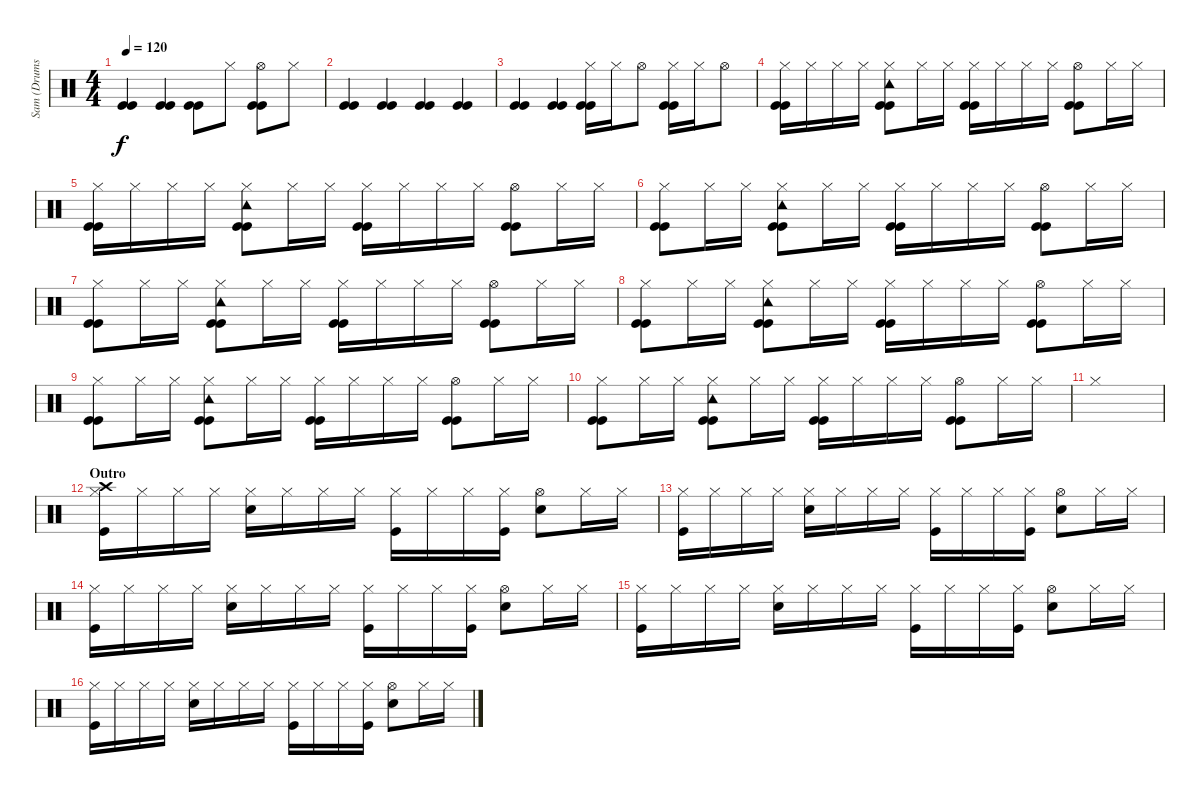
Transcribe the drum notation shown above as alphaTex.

\track ("Sam (Drums)" "Sam (Drums") {instrument percussion}
\staff {score}
\articulation defaults
\ts (4 4)
\tempo 120
\clef neutral
\ks c
("Kick (hit)" "Kick (hit)").4{dy f} ("Kick (hit)" "Kick (hit)").4 ("Kick (hit)" "Kick (hit)").8 "Hi-Hat (closed)".8 ("Hi-Hat (open)" "Kick (hit)" "Kick (hit)").8 "Hi-Hat (closed)".8 |
("Kick (hit)" "Kick (hit)").4 ("Kick (hit)" "Kick (hit)").4 ("Kick (hit)" "Kick (hit)").4 ("Kick (hit)" "Kick (hit)").4 |
("Kick (hit)" "Kick (hit)").4 ("Kick (hit)" "Kick (hit)").4 ("Hi-Hat (closed)" "Kick (hit)" "Kick (hit)").16 "Hi-Hat (closed)".16 "Hi-Hat (open)".8 ("Hi-Hat (closed)" "Kick (hit)" "Kick (hit)").16 "Hi-Hat (closed)".16 "Hi-Hat (open)".8 |
("Hi-Hat (closed)" "Kick (hit)" "Kick (hit)").16 "Hi-Hat (closed)".16 "Hi-Hat (closed)".16 "Hi-Hat (closed)".16 ("Hi-Hat (closed)" "Tambourine (hit)" "Kick (hit)" "Kick (hit)").8 "Hi-Hat (closed)".16 "Hi-Hat (closed)".16 ("Hi-Hat (closed)" "Kick (hit)" "Kick (hit)").16 "Hi-Hat (closed)".16 "Hi-Hat (closed)".16 "Hi-Hat (closed)".16 ("Hi-Hat (open)" "Kick (hit)" "Kick (hit)").8 "Hi-Hat (closed)".16 "Hi-Hat (closed)".16 |
("Hi-Hat (closed)" "Kick (hit)" "Kick (hit)").16 "Hi-Hat (closed)".16 "Hi-Hat (closed)".16 "Hi-Hat (closed)".16 ("Hi-Hat (closed)" "Tambourine (hit)" "Kick (hit)" "Kick (hit)").8 "Hi-Hat (closed)".16 "Hi-Hat (closed)".16 ("Hi-Hat (closed)" "Kick (hit)" "Kick (hit)").16 "Hi-Hat (closed)".16 "Hi-Hat (closed)".16 "Hi-Hat (closed)".16 ("Hi-Hat (open)" "Kick (hit)" "Kick (hit)").8 "Hi-Hat (closed)".16 "Hi-Hat (closed)".16 |
("Hi-Hat (closed)" "Kick (hit)" "Kick (hit)").8 "Hi-Hat (closed)".16 "Hi-Hat (closed)".16 ("Hi-Hat (closed)" "Tambourine (hit)" "Kick (hit)" "Kick (hit)").8 "Hi-Hat (closed)".16 "Hi-Hat (closed)".16 ("Hi-Hat (closed)" "Kick (hit)" "Kick (hit)").16 "Hi-Hat (closed)".16 "Hi-Hat (closed)".16 "Hi-Hat (closed)".16 ("Hi-Hat (open)" "Kick (hit)" "Kick (hit)").8 "Hi-Hat (closed)".16 "Hi-Hat (closed)".16 |
("Hi-Hat (closed)" "Kick (hit)" "Kick (hit)").8 "Hi-Hat (closed)".16 "Hi-Hat (closed)".16 ("Hi-Hat (closed)" "Tambourine (hit)" "Kick (hit)" "Kick (hit)").8 "Hi-Hat (closed)".16 "Hi-Hat (closed)".16 ("Hi-Hat (closed)" "Kick (hit)" "Kick (hit)").16 "Hi-Hat (closed)".16 "Hi-Hat (closed)".16 "Hi-Hat (closed)".16 ("Hi-Hat (open)" "Kick (hit)" "Kick (hit)").8 "Hi-Hat (closed)".16 "Hi-Hat (closed)".16 |
("Hi-Hat (closed)" "Kick (hit)" "Kick (hit)").8 "Hi-Hat (closed)".16 "Hi-Hat (closed)".16 ("Hi-Hat (closed)" "Tambourine (hit)" "Kick (hit)" "Kick (hit)").8 "Hi-Hat (closed)".16 "Hi-Hat (closed)".16 ("Hi-Hat (closed)" "Kick (hit)" "Kick (hit)").16 "Hi-Hat (closed)".16 "Hi-Hat (closed)".16 "Hi-Hat (closed)".16 ("Hi-Hat (open)" "Kick (hit)" "Kick (hit)").8 "Hi-Hat (closed)".16 "Hi-Hat (closed)".16 |
("Hi-Hat (closed)" "Kick (hit)" "Kick (hit)").8 "Hi-Hat (closed)".16 "Hi-Hat (closed)".16 ("Hi-Hat (closed)" "Tambourine (hit)" "Kick (hit)" "Kick (hit)").8 "Hi-Hat (closed)".16 "Hi-Hat (closed)".16 ("Hi-Hat (closed)" "Kick (hit)" "Kick (hit)").16 "Hi-Hat (closed)".16 "Hi-Hat (closed)".16 "Hi-Hat (closed)".16 ("Hi-Hat (open)" "Kick (hit)" "Kick (hit)").8 "Hi-Hat (closed)".16 "Hi-Hat (closed)".16 |
("Hi-Hat (closed)" "Kick (hit)" "Kick (hit)").8 "Hi-Hat (closed)".16 "Hi-Hat (closed)".16 ("Hi-Hat (closed)" "Tambourine (hit)" "Kick (hit)" "Kick (hit)").8 "Hi-Hat (closed)".16 "Hi-Hat (closed)".16 ("Hi-Hat (closed)" "Kick (hit)" "Kick (hit)").16 "Hi-Hat (closed)".16 "Hi-Hat (closed)".16 "Hi-Hat (closed)".16 ("Hi-Hat (open)" "Kick (hit)" "Kick (hit)").8 "Hi-Hat (closed)".16 "Hi-Hat (closed)".16 |
"Hi-Hat (closed)".1 |
\section ("" "Outro")
("Hi-Hat (closed)" "Crash high (hit)" "Kick (hit)").16 "Hi-Hat (closed)".16 "Hi-Hat (closed)".16 "Hi-Hat (closed)".16 ("Hi-Hat (closed)" "Snare (hit) 2").16 "Hi-Hat (closed)".16 "Hi-Hat (closed)".16 "Hi-Hat (closed)".16 ("Hi-Hat (closed)" "Kick (hit)").16 "Hi-Hat (closed)".16 "Hi-Hat (closed)".16 ("Hi-Hat (closed)" "Kick (hit)").16 ("Hi-Hat (open)" "Snare (hit) 2").8 "Hi-Hat (closed)".16 "Hi-Hat (closed)".16 |
("Hi-Hat (closed)" "Kick (hit)").16 "Hi-Hat (closed)".16 "Hi-Hat (closed)".16 "Hi-Hat (closed)".16 ("Hi-Hat (closed)" "Snare (hit) 2").16 "Hi-Hat (closed)".16 "Hi-Hat (closed)".16 "Hi-Hat (closed)".16 ("Hi-Hat (closed)" "Kick (hit)").16 "Hi-Hat (closed)".16 "Hi-Hat (closed)".16 ("Hi-Hat (closed)" "Kick (hit)").16 ("Hi-Hat (open)" "Snare (hit) 2").8 "Hi-Hat (closed)".16 "Hi-Hat (closed)".16 |
("Hi-Hat (closed)" "Kick (hit)").16 "Hi-Hat (closed)".16 "Hi-Hat (closed)".16 "Hi-Hat (closed)".16 ("Hi-Hat (closed)" "Snare (hit) 2").16 "Hi-Hat (closed)".16 "Hi-Hat (closed)".16 "Hi-Hat (closed)".16 ("Hi-Hat (closed)" "Kick (hit)").16 "Hi-Hat (closed)".16 "Hi-Hat (closed)".16 ("Hi-Hat (closed)" "Kick (hit)").16 ("Hi-Hat (open)" "Snare (hit) 2").8 "Hi-Hat (closed)".16 "Hi-Hat (closed)".16 |
("Hi-Hat (closed)" "Kick (hit)").16 "Hi-Hat (closed)".16 "Hi-Hat (closed)".16 "Hi-Hat (closed)".16 ("Hi-Hat (closed)" "Snare (hit) 2").16 "Hi-Hat (closed)".16 "Hi-Hat (closed)".16 "Hi-Hat (closed)".16 ("Hi-Hat (closed)" "Kick (hit)").16 "Hi-Hat (closed)".16 "Hi-Hat (closed)".16 ("Hi-Hat (closed)" "Kick (hit)").16 ("Hi-Hat (open)" "Snare (hit) 2").8 "Hi-Hat (closed)".16 "Hi-Hat (closed)".16 |
("Hi-Hat (closed)" "Kick (hit)").16 "Hi-Hat (closed)".16 "Hi-Hat (closed)".16 "Hi-Hat (closed)".16 ("Hi-Hat (closed)" "Snare (hit) 2").16 "Hi-Hat (closed)".16 "Hi-Hat (closed)".16 "Hi-Hat (closed)".16 ("Hi-Hat (closed)" "Kick (hit)").16 "Hi-Hat (closed)".16 "Hi-Hat (closed)".16 ("Hi-Hat (closed)" "Kick (hit)").16 ("Hi-Hat (open)" "Snare (hit) 2").8 "Hi-Hat (closed)".16 "Hi-Hat (closed)".16
